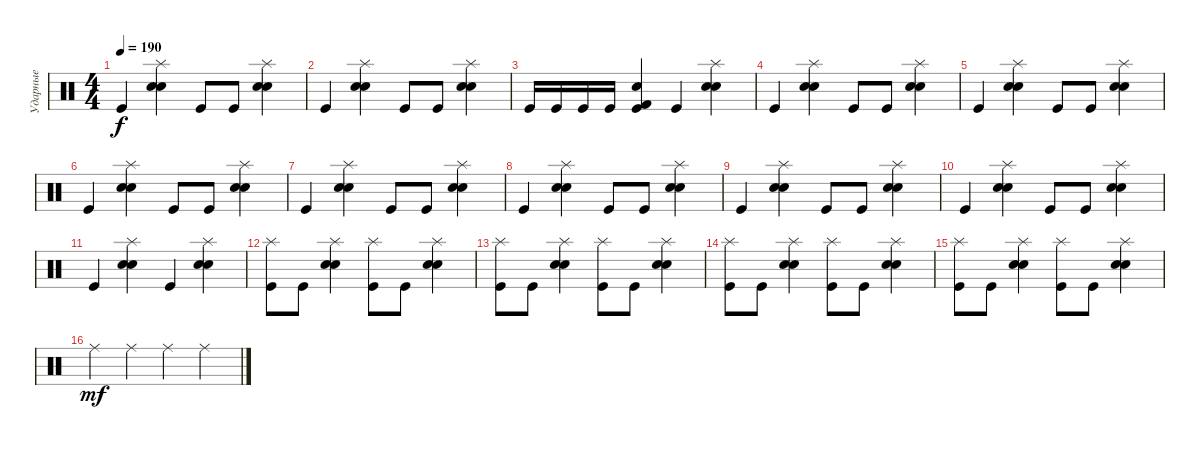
\track ("Ударные" "Ударные") {instrument percussion}
\staff {score}
\articulation defaults
\ts (4 4)
\tempo 190
\clef neutral
\ks c "Kick (hit)".4{dy f}
("Splash (hit)" "Snare (hit) 2" "Electric Snare (hit)").4 "Kick (hit)".8 "Kick (hit)".8 ("Splash (hit)" "Snare (hit) 2" "Electric Snare (hit)").4 |
"Kick (hit)".4 ("Splash (hit)" "Snare (hit) 2" "Electric Snare (hit)").4 "Kick (hit)".8 "Kick (hit)".8 ("Splash (hit)" "Snare (hit) 2" "Electric Snare (hit)").4 |
"Kick (hit)".16 "Kick (hit)".16 "Kick (hit)".16 "Kick (hit)".16 ("Electric Snare (hit)" "Kick (hit)" "Kick (hit) 2").4 "Kick (hit)".4 ("Splash (hit)" "Snare (hit) 2" "Electric Snare (hit)").4 |
"Kick (hit)".4 ("Splash (hit)" "Snare (hit) 2" "Electric Snare (hit)").4 "Kick (hit)".8 "Kick (hit)".8 ("Splash (hit)" "Snare (hit) 2" "Electric Snare (hit)").4 |
"Kick (hit)".4 ("Splash (hit)" "Snare (hit) 2" "Electric Snare (hit)").4 "Kick (hit)".8 "Kick (hit)".8 ("Splash (hit)" "Snare (hit) 2" "Electric Snare (hit)").4 |
"Kick (hit)".4 ("Splash (hit)" "Snare (hit) 2" "Electric Snare (hit)").4 "Kick (hit)".8 "Kick (hit)".8 ("Splash (hit)" "Snare (hit) 2" "Electric Snare (hit)").4 |
"Kick (hit)".4 ("Splash (hit)" "Snare (hit) 2" "Electric Snare (hit)").4 "Kick (hit)".8 "Kick (hit)".8 ("Splash (hit)" "Snare (hit) 2" "Electric Snare (hit)").4 |
"Kick (hit)".4 ("Splash (hit)" "Snare (hit) 2" "Electric Snare (hit)").4 "Kick (hit)".8 "Kick (hit)".8 ("Splash (hit)" "Snare (hit) 2" "Electric Snare (hit)").4 |
"Kick (hit)".4 ("Splash (hit)" "Snare (hit) 2" "Electric Snare (hit)").4 "Kick (hit)".8 "Kick (hit)".8 ("Splash (hit)" "Snare (hit) 2" "Electric Snare (hit)").4 |
"Kick (hit)".4 ("Splash (hit)" "Snare (hit) 2" "Electric Snare (hit)").4 "Kick (hit)".8 "Kick (hit)".8 ("Splash (hit)" "Snare (hit) 2" "Electric Snare (hit)").4 |
"Kick (hit)".4 ("Splash (hit)" "Snare (hit) 2" "Electric Snare (hit)").4 "Kick (hit)".4 ("Splash (hit)" "Snare (hit) 2" "Electric Snare (hit)").4 |
("Splash (hit)" "Kick (hit)").8 "Kick (hit)".8 ("Splash (hit)" "Snare (hit) 2" "Electric Snare (hit)").4 ("Splash (hit)" "Kick (hit)").8 "Kick (hit)".8 ("Splash (hit)" "Snare (hit) 2" "Electric Snare (hit)").4 |
("Splash (hit)" "Kick (hit)").8 "Kick (hit)".8 ("Splash (hit)" "Snare (hit) 2" "Electric Snare (hit)").4 ("Splash (hit)" "Kick (hit)").8 "Kick (hit)".8 ("Splash (hit)" "Snare (hit) 2" "Electric Snare (hit)").4 |
("Splash (hit)" "Kick (hit)").8 "Kick (hit)".8 ("Splash (hit)" "Snare (hit) 2" "Electric Snare (hit)").4 ("Splash (hit)" "Kick (hit)").8 "Kick (hit)".8 ("Splash (hit)" "Snare (hit) 2" "Electric Snare (hit)").4 |
("Splash (hit)" "Kick (hit)").8 "Kick (hit)".8 ("Splash (hit)" "Snare (hit) 2" "Electric Snare (hit)").4 ("Splash (hit)" "Kick (hit)").8 "Kick (hit)".8 ("Splash (hit)" "Snare (hit) 2" "Electric Snare (hit)").4 |
"Ride (middle)".4{dy mf} "Ride (middle)".4 "Ride (middle)".4 "Ride (middle)".4
